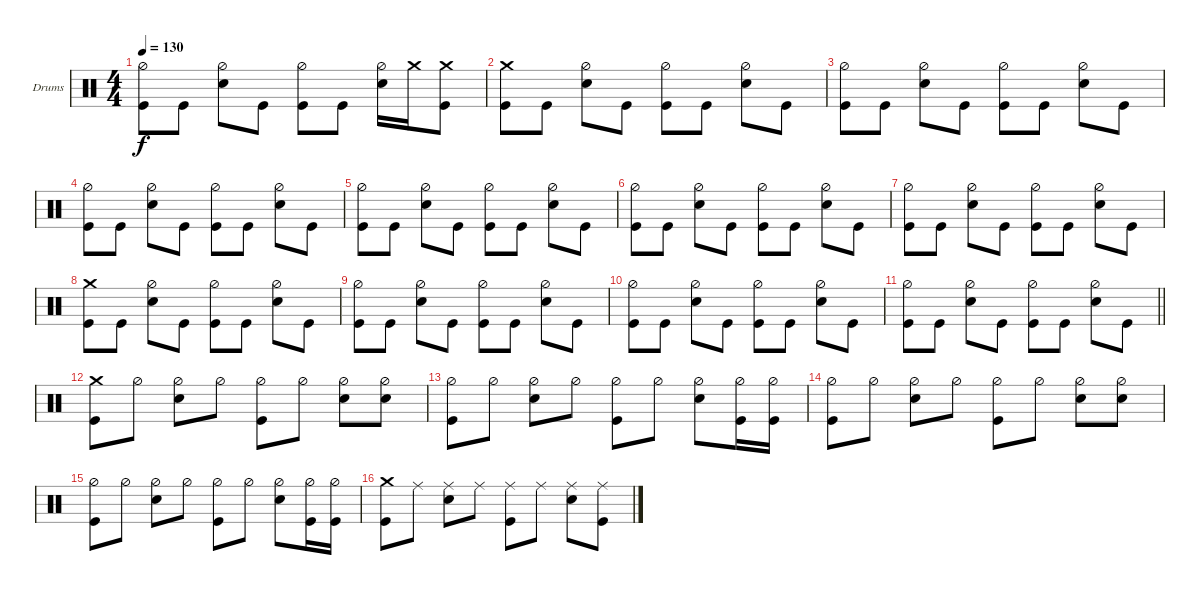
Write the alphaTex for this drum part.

\defaultSystemsLayout 4
\bracketExtendMode groupsimilarinstruments
\firstSystemTrackNameOrientation horizontal
\otherSystemsTrackNameOrientation horizontal
\track ("Drumkit" "Drums") {instrument percussion}
\staff {score}
\articulation defaults
\ts (4 4)
\tempo 130
\clef neutral
\ks aminor
("Kick (hit)" "Hi-Hat (half)").8{dy f} "Kick (hit)".8 ("Snare (hit) 2" "Hi-Hat (half)").8 "Kick (hit)".8 ("Kick (hit)" "Hi-Hat (half)").8 "Kick (hit)".8 ("Snare (hit) 2" "Hi-Hat (half)").16 "Crash medium (hit)".16 ("Kick (hit)" "Crash medium (hit)").8 |
("Kick (hit)" "Crash medium (hit)").8 "Kick (hit)".8 ("Snare (hit) 2" "Hi-Hat (half)").8 "Kick (hit)".8 ("Kick (hit)" "Hi-Hat (half)").8 "Kick (hit)".8 ("Snare (hit) 2" "Hi-Hat (half)").8 "Kick (hit)".8 |
("Kick (hit)" "Hi-Hat (half)").8 "Kick (hit)".8 ("Snare (hit) 2" "Hi-Hat (half)").8 "Kick (hit)".8 ("Kick (hit)" "Hi-Hat (half)").8 "Kick (hit)".8 ("Snare (hit) 2" "Hi-Hat (half)").8 "Kick (hit)".8 |
("Kick (hit)" "Hi-Hat (half)").8 "Kick (hit)".8 ("Snare (hit) 2" "Hi-Hat (half)").8 "Kick (hit)".8 ("Kick (hit)" "Hi-Hat (half)").8 "Kick (hit)".8 ("Snare (hit) 2" "Hi-Hat (half)").8 "Kick (hit)".8 |
("Kick (hit)" "Hi-Hat (half)").8 "Kick (hit)".8 ("Snare (hit) 2" "Hi-Hat (half)").8 "Kick (hit)".8 ("Kick (hit)" "Hi-Hat (half)").8 "Kick (hit)".8 ("Snare (hit) 2" "Hi-Hat (half)").8 "Kick (hit)".8 |
("Kick (hit)" "Hi-Hat (half)").8 "Kick (hit)".8 ("Snare (hit) 2" "Hi-Hat (half)").8 "Kick (hit)".8 ("Kick (hit)" "Hi-Hat (half)").8 "Kick (hit)".8 ("Snare (hit) 2" "Hi-Hat (half)").8 "Kick (hit)".8 |
("Kick (hit)" "Hi-Hat (half)").8 "Kick (hit)".8 ("Snare (hit) 2" "Hi-Hat (half)").8 "Kick (hit)".8 ("Kick (hit)" "Hi-Hat (half)").8 "Kick (hit)".8 ("Snare (hit) 2" "Hi-Hat (half)").8 "Kick (hit)".8 |
("Kick (hit)" "Crash medium (hit)").8 "Kick (hit)".8 ("Snare (hit) 2" "Hi-Hat (half)").8 "Kick (hit)".8 ("Kick (hit)" "Hi-Hat (half)").8 "Kick (hit)".8 ("Snare (hit) 2" "Hi-Hat (half)").8 "Kick (hit)".8 |
("Kick (hit)" "Hi-Hat (half)").8 "Kick (hit)".8 ("Snare (hit) 2" "Hi-Hat (half)").8 "Kick (hit)".8 ("Kick (hit)" "Hi-Hat (half)").8 "Kick (hit)".8 ("Snare (hit) 2" "Hi-Hat (half)").8 "Kick (hit)".8 |
("Kick (hit)" "Hi-Hat (half)").8 "Kick (hit)".8 ("Snare (hit) 2" "Hi-Hat (half)").8 "Kick (hit)".8 ("Kick (hit)" "Hi-Hat (half)").8 "Kick (hit)".8 ("Snare (hit) 2" "Hi-Hat (half)").8 "Kick (hit)".8 |
\barLineRight lightlight
("Kick (hit)" "Hi-Hat (half)").8 "Kick (hit)".8 ("Snare (hit) 2" "Hi-Hat (half)").8 "Kick (hit)".8 ("Kick (hit)" "Hi-Hat (half)").8 "Kick (hit)".8 ("Snare (hit) 2" "Hi-Hat (half)").8 "Kick (hit)".8 |
("Kick (hit)" "Crash medium (hit)").8 "Hi-Hat (half)".8 ("Snare (hit) 2" "Hi-Hat (half)").8 "Hi-Hat (half)".8 ("Kick (hit)" "Hi-Hat (half)").8 "Hi-Hat (half)".8 ("Snare (hit) 2" "Hi-Hat (half)").8 ("Snare (hit) 2" "Hi-Hat (half)").8 |
("Kick (hit)" "Hi-Hat (half)").8 "Hi-Hat (half)".8 ("Snare (hit) 2" "Hi-Hat (half)").8 "Hi-Hat (half)".8 ("Kick (hit)" "Hi-Hat (half)").8 "Hi-Hat (half)".8 ("Snare (hit) 2" "Hi-Hat (half)").8 ("Kick (hit)" "Hi-Hat (half)").16 ("Kick (hit)" "Hi-Hat (half)").16 |
("Kick (hit)" "Hi-Hat (half)").8 "Hi-Hat (half)".8 ("Snare (hit) 2" "Hi-Hat (half)").8 "Hi-Hat (half)".8 ("Kick (hit)" "Hi-Hat (half)").8 "Hi-Hat (half)".8 ("Snare (hit) 2" "Hi-Hat (half)").8 ("Snare (hit) 2" "Hi-Hat (half)").8 |
("Kick (hit)" "Hi-Hat (half)").8 "Hi-Hat (half)".8 ("Snare (hit) 2" "Hi-Hat (half)").8 "Hi-Hat (half)".8 ("Kick (hit)" "Hi-Hat (half)").8 "Hi-Hat (half)".8 ("Snare (hit) 2" "Hi-Hat (half)").8 ("Kick (hit)" "Hi-Hat (half)").16 ("Kick (hit)" "Hi-Hat (half)").16 |
("Kick (hit)" "Crash medium (hit)").8 "Ride (middle)".8 ("Snare (hit) 2" "Ride (middle)").8 "Ride (middle)".8 ("Kick (hit)" "Ride (middle)").8 "Ride (middle)".8 ("Snare (hit) 2" "Ride (middle)").8 ("Kick (hit)" "Ride (middle)").8
